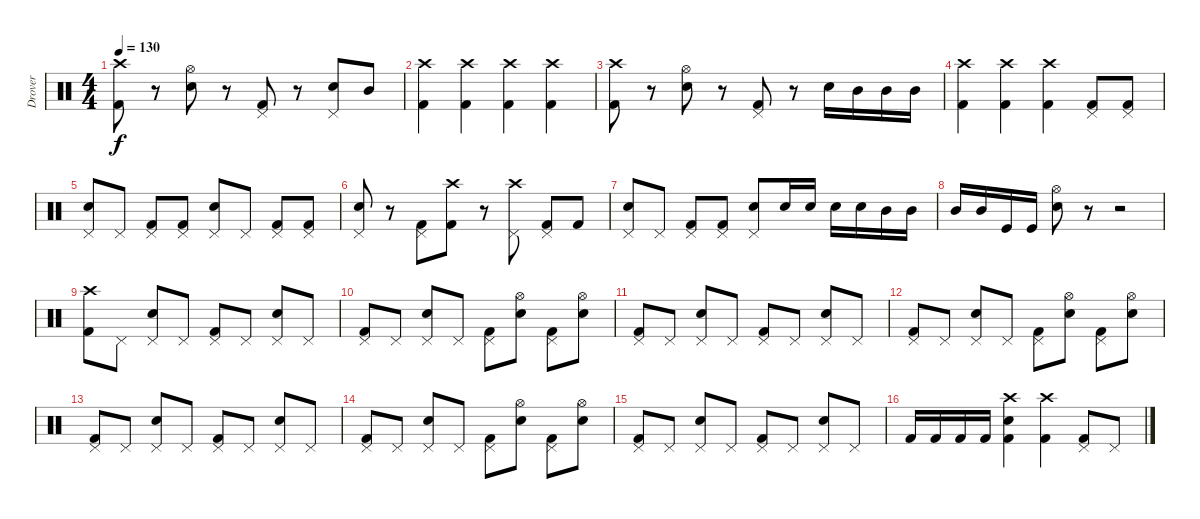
\track ("Drover" "Drover") {instrument percussion}
\staff {score}
\articulation defaults
\ts (4 4)
\tempo 130
\clef neutral
\ks c
("Crash high (hit)" "Kick (hit) 2").8{dy f} r.8 ("Electric Snare (hit)" "Hi-Hat (open)").8 r.8 ("Kick (hit) 2" "Pedal Hi-Hat (hit)").8 r.8 ("Electric Snare (hit)" "Pedal Hi-Hat (hit)").8 "Mid Tom (hit)".8 |
("Kick (hit) 2" "Crash high (hit)").4 ("Kick (hit) 2" "Crash high (hit)").4 ("Kick (hit) 2" "Crash high (hit)").4 ("Kick (hit) 2" "Crash high (hit)").4 |
("Crash high (hit)" "Kick (hit) 2").8 r.8 ("Electric Snare (hit)" "Hi-Hat (open)").8 r.8 ("Kick (hit) 2" "Pedal Hi-Hat (hit)").8 r.8 "Snare (hit) 2".16 "Mid Tom (hit)".16 "Mid Tom (hit)".16 "Mid Tom (hit)".16 |
("Kick (hit) 2" "Crash high (hit)").4 ("Kick (hit) 2" "Crash high (hit)").4 ("Kick (hit) 2" "Crash high (hit)").4 ("Kick (hit) 2" "Pedal Hi-Hat (hit)").8 ("Kick (hit) 2" "Pedal Hi-Hat (hit)").8 |
("Electric Snare (hit)" "Pedal Hi-Hat (hit)").8 "Pedal Hi-Hat (hit)".8 ("Kick (hit) 2" "Pedal Hi-Hat (hit)").8 ("Kick (hit) 2" "Pedal Hi-Hat (hit)").8 ("Electric Snare (hit)" "Pedal Hi-Hat (hit)").8 "Pedal Hi-Hat (hit)".8 ("Kick (hit) 2" "Pedal Hi-Hat (hit)").8 ("Kick (hit) 2" "Pedal Hi-Hat (hit)").8 |
("Pedal Hi-Hat (hit)" "Electric Snare (hit)").8 r.8 ("Pedal Hi-Hat (hit)" "Kick (hit) 2").8 ("Kick (hit) 2" "Crash high (hit)").8 r.8 ("Pedal Hi-Hat (hit)" "Crash high (hit)").8 ("Pedal Hi-Hat (hit)" "Kick (hit) 2").8 "Kick (hit) 2".8 |
("Electric Snare (hit)" "Pedal Hi-Hat (hit)").8 "Pedal Hi-Hat (hit)".8 ("Kick (hit) 2" "Pedal Hi-Hat (hit)").8 ("Kick (hit) 2" "Pedal Hi-Hat (hit)").8 ("Electric Snare (hit)" "Pedal Hi-Hat (hit)").8 "Snare (hit) 2".16 "Snare (hit) 2".16 "Snare (hit) 2".16 "Snare (hit) 2".16 "Mid Tom (hit)".16 "Mid Tom (hit)".16 |
"Mid Tom (hit)".16 "Mid Tom (hit)".16 "Kick (hit)".16 "Kick (hit)".16 ("Hi-Hat (open)" "Electric Snare (hit)").8 r.8 r.2 |
("Crash high (hit)" "Kick (hit) 2").8 "Pedal Hi-Hat (hit)".8 ("Pedal Hi-Hat (hit)" "Electric Snare (hit)").8 "Pedal Hi-Hat (hit)".8 ("Pedal Hi-Hat (hit)" "Kick (hit) 2").8 "Pedal Hi-Hat (hit)".8 ("Pedal Hi-Hat (hit)" "Electric Snare (hit)").8 "Pedal Hi-Hat (hit)".8 |
("Pedal Hi-Hat (hit)" "Kick (hit) 2").8 "Pedal Hi-Hat (hit)".8 ("Pedal Hi-Hat (hit)" "Electric Snare (hit)").8 "Pedal Hi-Hat (hit)".8 ("Kick (hit) 2" "Pedal Hi-Hat (hit)").8 ("Electric Snare (hit)" "Hi-Hat (open)").8 ("Kick (hit) 2" "Pedal Hi-Hat (hit)").8 ("Electric Snare (hit)" "Hi-Hat (open)").8 |
("Pedal Hi-Hat (hit)" "Kick (hit) 2").8 "Pedal Hi-Hat (hit)".8 ("Pedal Hi-Hat (hit)" "Electric Snare (hit)").8 "Pedal Hi-Hat (hit)".8 ("Pedal Hi-Hat (hit)" "Kick (hit) 2").8 "Pedal Hi-Hat (hit)".8 ("Pedal Hi-Hat (hit)" "Electric Snare (hit)").8 "Pedal Hi-Hat (hit)".8 |
("Pedal Hi-Hat (hit)" "Kick (hit) 2").8 "Pedal Hi-Hat (hit)".8 ("Pedal Hi-Hat (hit)" "Electric Snare (hit)").8 "Pedal Hi-Hat (hit)".8 ("Kick (hit) 2" "Pedal Hi-Hat (hit)").8 ("Electric Snare (hit)" "Hi-Hat (open)").8 ("Kick (hit) 2" "Pedal Hi-Hat (hit)").8 ("Electric Snare (hit)" "Hi-Hat (open)").8 |
("Pedal Hi-Hat (hit)" "Kick (hit) 2").8 "Pedal Hi-Hat (hit)".8 ("Pedal Hi-Hat (hit)" "Electric Snare (hit)").8 "Pedal Hi-Hat (hit)".8 ("Pedal Hi-Hat (hit)" "Kick (hit) 2").8 "Pedal Hi-Hat (hit)".8 ("Pedal Hi-Hat (hit)" "Electric Snare (hit)").8 "Pedal Hi-Hat (hit)".8 |
("Pedal Hi-Hat (hit)" "Kick (hit) 2").8 "Pedal Hi-Hat (hit)".8 ("Pedal Hi-Hat (hit)" "Electric Snare (hit)").8 "Pedal Hi-Hat (hit)".8 ("Kick (hit) 2" "Pedal Hi-Hat (hit)").8 ("Electric Snare (hit)" "Hi-Hat (open)").8 ("Kick (hit) 2" "Pedal Hi-Hat (hit)").8 ("Electric Snare (hit)" "Hi-Hat (open)").8 |
("Pedal Hi-Hat (hit)" "Kick (hit) 2").8 "Pedal Hi-Hat (hit)".8 ("Pedal Hi-Hat (hit)" "Electric Snare (hit)").8 "Pedal Hi-Hat (hit)".8 ("Pedal Hi-Hat (hit)" "Kick (hit) 2").8 "Pedal Hi-Hat (hit)".8 ("Pedal Hi-Hat (hit)" "Electric Snare (hit)").8 "Pedal Hi-Hat (hit)".8 |
"Kick (hit) 2".16 "Kick (hit) 2".16 "Kick (hit) 2".16 "Kick (hit) 2".16 ("Electric Snare (hit)" "Kick (hit) 2" "Crash high (hit)").4 ("Kick (hit) 2" "Crash high (hit)").4 ("Pedal Hi-Hat (hit)" "Kick (hit) 2").8 "Pedal Hi-Hat (hit)".8
